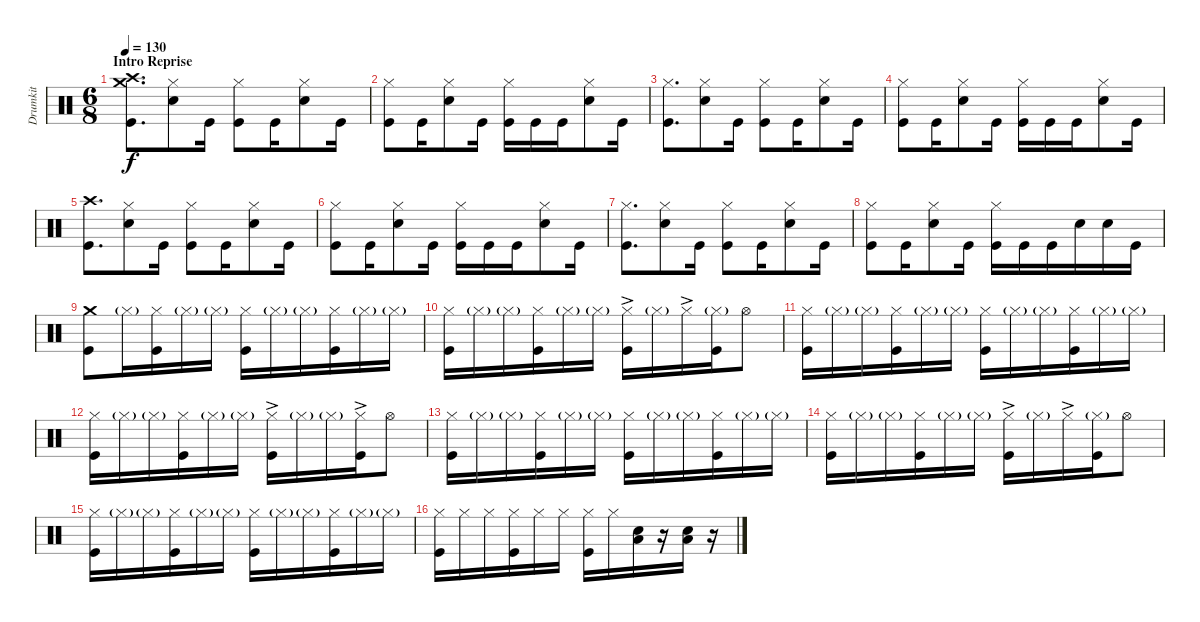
\track ("Drumkit" "Drumkit") {instrument percussion}
\staff {score}
\articulation defaults
\ts (6 8)
\section ("" "Intro Reprise")
\tempo 130
\clef neutral
\ks c
("Kick (hit)" "Crash high (hit)" "Crash medium (hit)").8{d dy f} ("Snare (hit) 2" "Hi-Hat (closed)").8 "Kick (hit)".16 ("Kick (hit)" "Hi-Hat (closed)").8 "Kick (hit)".16 ("Snare (hit) 2" "Hi-Hat (closed)").8 "Kick (hit)".16 |
("Kick (hit)" "Hi-Hat (closed)").8 "Kick (hit)".16 ("Snare (hit) 2" "Hi-Hat (closed)").8 "Kick (hit)".16 ("Kick (hit)" "Hi-Hat (closed)").16 "Kick (hit)".16 "Kick (hit)".16 ("Snare (hit) 2" "Hi-Hat (closed)").8 "Kick (hit)".16 |
("Kick (hit)" "Hi-Hat (closed)").8{d} ("Snare (hit) 2" "Hi-Hat (closed)").8 "Kick (hit)".16 ("Kick (hit)" "Hi-Hat (closed)").8 "Kick (hit)".16 ("Snare (hit) 2" "Hi-Hat (closed)").8 "Kick (hit)".16 |
("Kick (hit)" "Hi-Hat (closed)").8 "Kick (hit)".16 ("Snare (hit) 2" "Hi-Hat (closed)").8 "Kick (hit)".16 ("Kick (hit)" "Hi-Hat (closed)").16 "Kick (hit)".16 "Kick (hit)".16 ("Snare (hit) 2" "Hi-Hat (closed)").8 "Kick (hit)".16 |
("Kick (hit)" "Crash high (hit)").8{d} ("Snare (hit) 2" "Hi-Hat (closed)").8 "Kick (hit)".16 ("Kick (hit)" "Hi-Hat (closed)").8 "Kick (hit)".16 ("Snare (hit) 2" "Hi-Hat (closed)").8 "Kick (hit)".16 |
("Kick (hit)" "Hi-Hat (closed)").8 "Kick (hit)".16 ("Snare (hit) 2" "Hi-Hat (closed)").8 "Kick (hit)".16 ("Kick (hit)" "Hi-Hat (closed)").16 "Kick (hit)".16 "Kick (hit)".16 ("Snare (hit) 2" "Hi-Hat (closed)").8 "Kick (hit)".16 |
("Kick (hit)" "Hi-Hat (closed)").8{d} ("Snare (hit) 2" "Hi-Hat (closed)").8 "Kick (hit)".16 ("Kick (hit)" "Hi-Hat (closed)").8 "Kick (hit)".16 ("Snare (hit) 2" "Hi-Hat (closed)").8 "Kick (hit)".16 |
("Kick (hit)" "Hi-Hat (closed)").8 "Kick (hit)".16 ("Snare (hit) 2" "Hi-Hat (closed)").8 "Kick (hit)".16 ("Kick (hit)" "Hi-Hat (closed)").16 "Kick (hit)".16 "Kick (hit)".16 "Snare (hit) 2".16 "Snare (hit) 2".16 "Kick (hit)".16 |
("Kick (hit)" "Crash medium (hit)").8 "Hi-Hat (closed)"{g}.16 ("Hi-Hat (closed)" "Kick (hit)").16 "Hi-Hat (closed)"{g}.16 "Hi-Hat (closed)"{g}.16 ("Hi-Hat (closed)" "Kick (hit)").16 "Hi-Hat (closed)"{g}.16 "Hi-Hat (closed)"{g}.16 ("Hi-Hat (closed)" "Kick (hit)").16 "Hi-Hat (closed)"{g}.16 "Hi-Hat (closed)"{g}.16 |
("Hi-Hat (closed)" "Kick (hit)").16 "Hi-Hat (closed)"{g}.16 "Hi-Hat (closed)"{g}.16 ("Hi-Hat (closed)" "Kick (hit)").16 "Hi-Hat (closed)"{g}.16 "Hi-Hat (closed)"{g}.16 ("Hi-Hat (closed)"{ac} "Kick (hit)").16 "Hi-Hat (closed)"{g}.16 "Hi-Hat (closed)"{ac}.16 ("Hi-Hat (closed)"{g} "Kick (hit)").16 "Hi-Hat (open)".8 |
("Hi-Hat (closed)" "Kick (hit)").16 "Hi-Hat (closed)"{g}.16 "Hi-Hat (closed)"{g}.16 ("Hi-Hat (closed)" "Kick (hit)").16 "Hi-Hat (closed)"{g}.16 "Hi-Hat (closed)"{g}.16 ("Hi-Hat (closed)" "Kick (hit)").16 "Hi-Hat (closed)"{g}.16 "Hi-Hat (closed)"{g}.16 ("Hi-Hat (closed)" "Kick (hit)").16 "Hi-Hat (closed)"{g}.16 "Hi-Hat (closed)"{g}.16 |
("Hi-Hat (closed)" "Kick (hit)").16 "Hi-Hat (closed)"{g}.16 "Hi-Hat (closed)"{g}.16 ("Hi-Hat (closed)" "Kick (hit)").16 "Hi-Hat (closed)"{g}.16 "Hi-Hat (closed)"{g}.16 ("Hi-Hat (closed)"{ac} "Kick (hit)").16 "Hi-Hat (closed)"{g}.16 "Hi-Hat (closed)"{g}.16 ("Hi-Hat (closed)"{ac} "Kick (hit)").16 "Hi-Hat (open)".8 |
("Hi-Hat (closed)" "Kick (hit)").16 "Hi-Hat (closed)"{g}.16 "Hi-Hat (closed)"{g}.16 ("Hi-Hat (closed)" "Kick (hit)").16 "Hi-Hat (closed)"{g}.16 "Hi-Hat (closed)"{g}.16 ("Hi-Hat (closed)" "Kick (hit)").16 "Hi-Hat (closed)"{g}.16 "Hi-Hat (closed)"{g}.16 ("Hi-Hat (closed)" "Kick (hit)").16 "Hi-Hat (closed)"{g}.16 "Hi-Hat (closed)"{g}.16 |
("Hi-Hat (closed)" "Kick (hit)").16 "Hi-Hat (closed)"{g}.16 "Hi-Hat (closed)"{g}.16 ("Hi-Hat (closed)" "Kick (hit)").16 "Hi-Hat (closed)"{g}.16 "Hi-Hat (closed)"{g}.16 ("Hi-Hat (closed)"{ac} "Kick (hit)").16 "Hi-Hat (closed)"{g}.16 "Hi-Hat (closed)"{ac}.16 ("Hi-Hat (closed)"{g} "Kick (hit)").16 "Hi-Hat (open)".8 |
("Hi-Hat (closed)" "Kick (hit)").16 "Hi-Hat (closed)"{g}.16 "Hi-Hat (closed)"{g}.16 ("Hi-Hat (closed)" "Kick (hit)").16 "Hi-Hat (closed)"{g}.16 "Hi-Hat (closed)"{g}.16 ("Hi-Hat (closed)" "Kick (hit)").16 "Hi-Hat (closed)"{g}.16 "Hi-Hat (closed)"{g}.16 ("Hi-Hat (closed)" "Kick (hit)").16 "Hi-Hat (closed)"{g}.16 "Hi-Hat (closed)"{g}.16 |
("Hi-Hat (closed)" "Kick (hit)").16 "Hi-Hat (closed)".16 "Hi-Hat (closed)".16 ("Hi-Hat (closed)" "Kick (hit)").16 "Hi-Hat (closed)".16 "Hi-Hat (closed)".16 ("Hi-Hat (closed)" "Kick (hit)").16 "Hi-Hat (closed)".16 ("Low Tom (hit)" "Snare (hit) 2").16 r.16 ("Snare (hit) 2" "Low Tom (hit)").16 r.16
